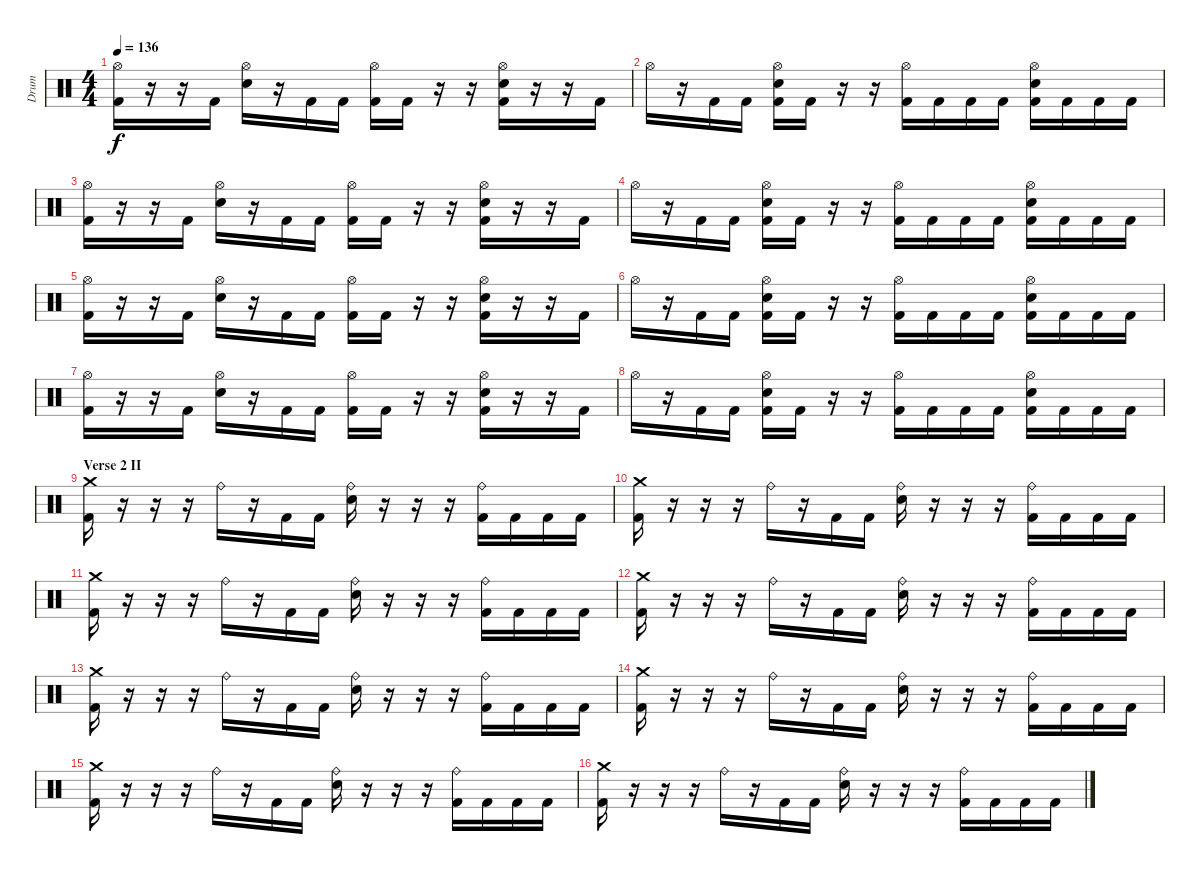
\track ("Drum" "Drum") {instrument percussion}
\staff {score}
\articulation defaults
\ts (4 4)
\tempo 136
\clef neutral
\ks c
("Hi-Hat (open)" "Kick (hit) 2").16{dy f} r.16 r.16 "Kick (hit) 2".16 ("Hi-Hat (open)" "Snare (hit) 2").16 r.16 "Kick (hit) 2".16 "Kick (hit) 2".16 ("Hi-Hat (open)" "Kick (hit) 2").16 "Kick (hit) 2".16 r.16 r.16 ("Hi-Hat (open)" "Snare (hit) 2" "Kick (hit) 2").16 r.16 r.16 "Kick (hit) 2".16 |
"Hi-Hat (open)".16 r.16 "Kick (hit) 2".16 "Kick (hit) 2".16 ("Hi-Hat (open)" "Snare (hit) 2" "Kick (hit) 2").16 "Kick (hit) 2".16 r.16 r.16 ("Hi-Hat (open)" "Kick (hit) 2").16 "Kick (hit) 2".16 "Kick (hit) 2".16 "Kick (hit) 2".16 ("Hi-Hat (open)" "Snare (hit) 2" "Kick (hit) 2").16 "Kick (hit) 2".16 "Kick (hit) 2".16 "Kick (hit) 2".16 |
("Hi-Hat (open)" "Kick (hit) 2").16 r.16 r.16 "Kick (hit) 2".16 ("Hi-Hat (open)" "Snare (hit) 2").16 r.16 "Kick (hit) 2".16 "Kick (hit) 2".16 ("Hi-Hat (open)" "Kick (hit) 2").16 "Kick (hit) 2".16 r.16 r.16 ("Hi-Hat (open)" "Snare (hit) 2" "Kick (hit) 2").16 r.16 r.16 "Kick (hit) 2".16 |
"Hi-Hat (open)".16 r.16 "Kick (hit) 2".16 "Kick (hit) 2".16 ("Hi-Hat (open)" "Snare (hit) 2" "Kick (hit) 2").16 "Kick (hit) 2".16 r.16 r.16 ("Hi-Hat (open)" "Kick (hit) 2").16 "Kick (hit) 2".16 "Kick (hit) 2".16 "Kick (hit) 2".16 ("Hi-Hat (open)" "Snare (hit) 2" "Kick (hit) 2").16 "Kick (hit) 2".16 "Kick (hit) 2".16 "Kick (hit) 2".16 |
("Hi-Hat (open)" "Kick (hit) 2").16 r.16 r.16 "Kick (hit) 2".16 ("Hi-Hat (open)" "Snare (hit) 2").16 r.16 "Kick (hit) 2".16 "Kick (hit) 2".16 ("Hi-Hat (open)" "Kick (hit) 2").16 "Kick (hit) 2".16 r.16 r.16 ("Hi-Hat (open)" "Snare (hit) 2" "Kick (hit) 2").16 r.16 r.16 "Kick (hit) 2".16 |
"Hi-Hat (open)".16 r.16 "Kick (hit) 2".16 "Kick (hit) 2".16 ("Hi-Hat (open)" "Snare (hit) 2" "Kick (hit) 2").16 "Kick (hit) 2".16 r.16 r.16 ("Hi-Hat (open)" "Kick (hit) 2").16 "Kick (hit) 2".16 "Kick (hit) 2".16 "Kick (hit) 2".16 ("Hi-Hat (open)" "Snare (hit) 2" "Kick (hit) 2").16 "Kick (hit) 2".16 "Kick (hit) 2".16 "Kick (hit) 2".16 |
("Hi-Hat (open)" "Kick (hit) 2").16 r.16 r.16 "Kick (hit) 2".16 ("Hi-Hat (open)" "Snare (hit) 2").16 r.16 "Kick (hit) 2".16 "Kick (hit) 2".16 ("Hi-Hat (open)" "Kick (hit) 2").16 "Kick (hit) 2".16 r.16 r.16 ("Hi-Hat (open)" "Snare (hit) 2" "Kick (hit) 2").16 r.16 r.16 "Kick (hit) 2".16 |
"Hi-Hat (open)".16 r.16 "Kick (hit) 2".16 "Kick (hit) 2".16 ("Hi-Hat (open)" "Snare (hit) 2" "Kick (hit) 2").16 "Kick (hit) 2".16 r.16 r.16 ("Hi-Hat (open)" "Kick (hit) 2").16 "Kick (hit) 2".16 "Kick (hit) 2".16 "Kick (hit) 2".16 ("Hi-Hat (open)" "Snare (hit) 2" "Kick (hit) 2").16 "Kick (hit) 2".16 "Kick (hit) 2".16 "Kick (hit) 2".16 |
\section ("" "Verse 2 II")
("Crash medium (hit)" "Kick (hit) 2").16 r.16 r.16 r.16 "Ride (bell)".16 r.16 "Kick (hit) 2".16 "Kick (hit) 2".16 ("Ride (bell)" "Snare (hit) 2").16 r.16 r.16 r.16 ("Ride (bell)" "Kick (hit) 2").16 "Kick (hit) 2".16 "Kick (hit) 2".16 "Kick (hit) 2".16 |
("Crash medium (hit)" "Kick (hit) 2").16 r.16 r.16 r.16 "Ride (bell)".16 r.16 "Kick (hit) 2".16 "Kick (hit) 2".16 ("Ride (bell)" "Snare (hit) 2").16 r.16 r.16 r.16 ("Ride (bell)" "Kick (hit) 2").16 "Kick (hit) 2".16 "Kick (hit) 2".16 "Kick (hit) 2".16 |
("Crash medium (hit)" "Kick (hit) 2").16 r.16 r.16 r.16 "Ride (bell)".16 r.16 "Kick (hit) 2".16 "Kick (hit) 2".16 ("Ride (bell)" "Snare (hit) 2").16 r.16 r.16 r.16 ("Ride (bell)" "Kick (hit) 2").16 "Kick (hit) 2".16 "Kick (hit) 2".16 "Kick (hit) 2".16 |
("Crash medium (hit)" "Kick (hit) 2").16 r.16 r.16 r.16 "Ride (bell)".16 r.16 "Kick (hit) 2".16 "Kick (hit) 2".16 ("Ride (bell)" "Snare (hit) 2").16 r.16 r.16 r.16 ("Ride (bell)" "Kick (hit) 2").16 "Kick (hit) 2".16 "Kick (hit) 2".16 "Kick (hit) 2".16 |
("Crash medium (hit)" "Kick (hit) 2").16 r.16 r.16 r.16 "Ride (bell)".16 r.16 "Kick (hit) 2".16 "Kick (hit) 2".16 ("Ride (bell)" "Snare (hit) 2").16 r.16 r.16 r.16 ("Ride (bell)" "Kick (hit) 2").16 "Kick (hit) 2".16 "Kick (hit) 2".16 "Kick (hit) 2".16 |
("Crash medium (hit)" "Kick (hit) 2").16 r.16 r.16 r.16 "Ride (bell)".16 r.16 "Kick (hit) 2".16 "Kick (hit) 2".16 ("Ride (bell)" "Snare (hit) 2").16 r.16 r.16 r.16 ("Ride (bell)" "Kick (hit) 2").16 "Kick (hit) 2".16 "Kick (hit) 2".16 "Kick (hit) 2".16 |
("Crash medium (hit)" "Kick (hit) 2").16 r.16 r.16 r.16 "Ride (bell)".16 r.16 "Kick (hit) 2".16 "Kick (hit) 2".16 ("Ride (bell)" "Snare (hit) 2").16 r.16 r.16 r.16 ("Ride (bell)" "Kick (hit) 2").16 "Kick (hit) 2".16 "Kick (hit) 2".16 "Kick (hit) 2".16 |
("Crash medium (hit)" "Kick (hit) 2").16 r.16 r.16 r.16 "Ride (bell)".16 r.16 "Kick (hit) 2".16 "Kick (hit) 2".16 ("Ride (bell)" "Snare (hit) 2").16 r.16 r.16 r.16 ("Ride (bell)" "Kick (hit) 2").16 "Kick (hit) 2".16 "Kick (hit) 2".16 "Kick (hit) 2".16
